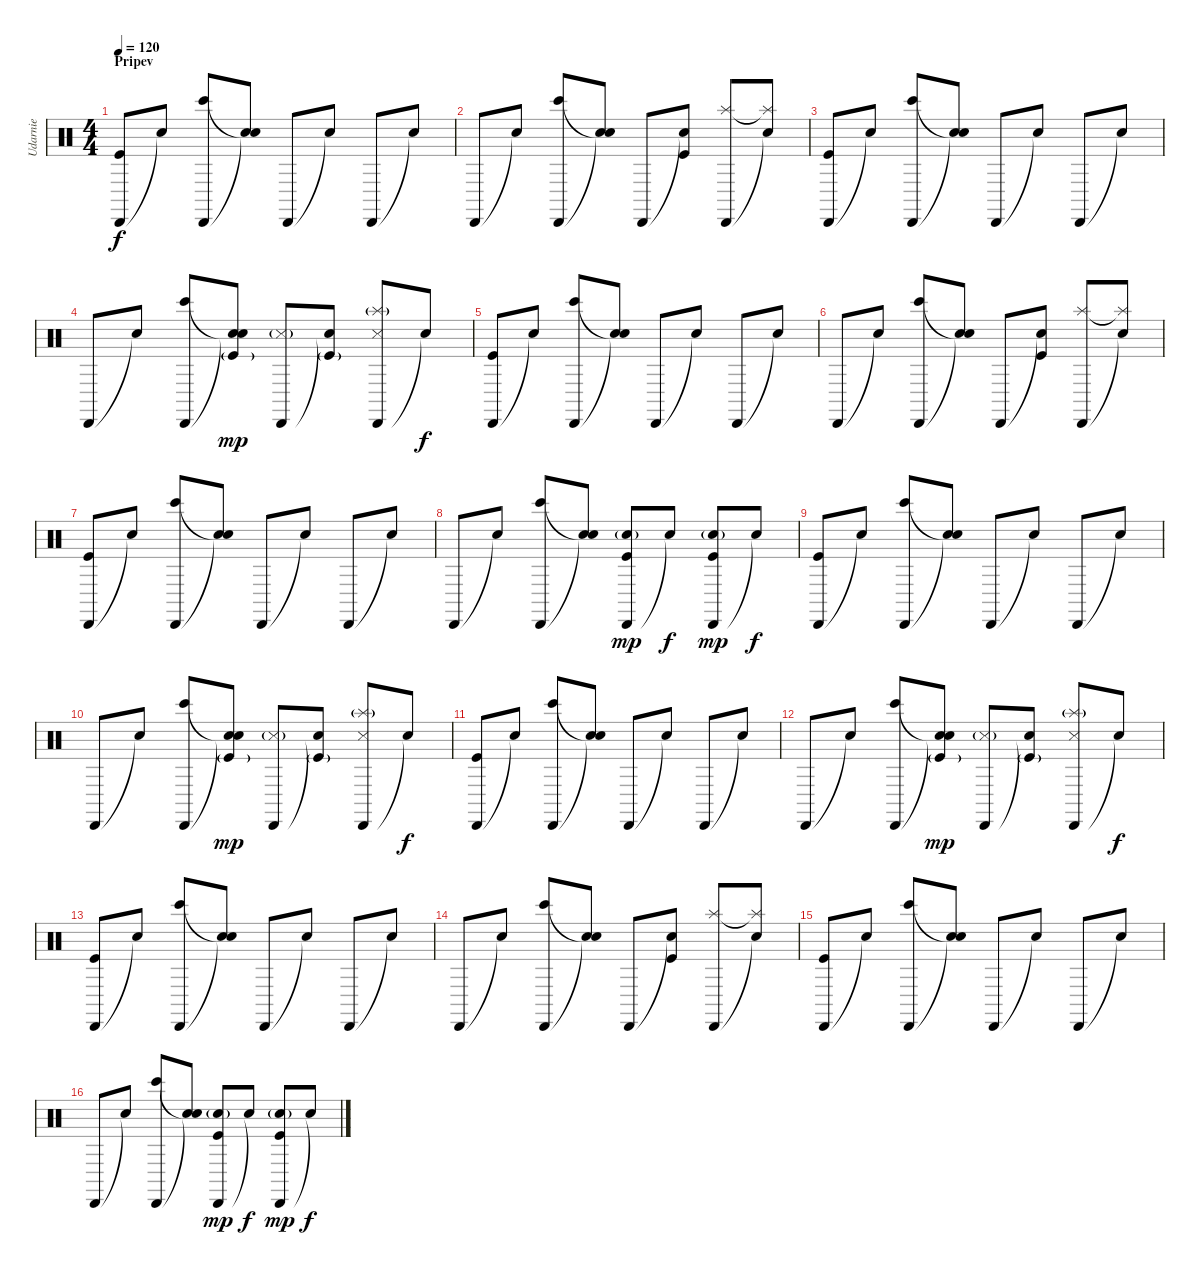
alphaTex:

\track ("Udarnie" "Udarnie") {instrument percussion}
\staff {score}
\articulation defaults
\ts (4 4)
\section ("" "Pripev")
\tempo 120
\clef neutral
\ks c
("Cabasa (hit)" "Kick (hit)").8{dy f} "Snare (hit)"{t}.8 ("Cabasa (hit)" "Bongo High (hit)").8 ("Snare (hit)"{t} "Snare (hit)"{t}).8 "Cabasa (hit)".8 "Snare (hit)"{t}.8 "Cabasa (hit)".8 "Snare (hit)"{t}.8 |
"Cabasa (hit)".8 "Snare (hit)"{t}.8 ("Cabasa (hit)" "Bongo High (hit)").8 ("Snare (hit)"{t} "Snare (hit)"{t}).8 "Cabasa (hit)".8 ("Snare (hit)"{t} "Kick (hit)").8 ("Cabasa (hit)" "Splash (hit)").8 ("Snare (hit)"{t} "Splash (hit)"{t}).8 |
("Cabasa (hit)" "Kick (hit)").8 "Snare (hit)"{t}.8 ("Cabasa (hit)" "Bongo High (hit)").8 ("Snare (hit)"{t} "Snare (hit)"{t}).8 "Cabasa (hit)".8 "Snare (hit)"{t}.8 "Cabasa (hit)".8 "Snare (hit)"{t}.8 |
"Cabasa (hit)".8 "Snare (hit)"{t}.8 ("Cabasa (hit)" "Bongo High (hit)").8 ("Snare (hit)"{t} "Snare (hit)"{t} "Kick (hit)"{g}).8{dy mp} ("Cabasa (hit)" "Snare (side stick) 3"{g}).8 ("Snare (hit)"{t} "Kick (hit)"{g}).8 ("Cabasa (hit)" "Snare (side stick) 3" "Splash (hit)"{g}).8 "Snare (hit)"{t}.8{dy f} |
("Cabasa (hit)" "Kick (hit)").8 "Snare (hit)"{t}.8 ("Cabasa (hit)" "Bongo High (hit)").8 ("Snare (hit)"{t} "Snare (hit)"{t}).8 "Cabasa (hit)".8 "Snare (hit)"{t}.8 "Cabasa (hit)".8 "Snare (hit)"{t}.8 |
"Cabasa (hit)".8 "Snare (hit)"{t}.8 ("Cabasa (hit)" "Bongo High (hit)").8 ("Snare (hit)"{t} "Snare (hit)"{t}).8 "Cabasa (hit)".8 ("Snare (hit)"{t} "Kick (hit)").8 ("Cabasa (hit)" "Splash (hit)").8 ("Snare (hit)"{t} "Splash (hit)"{t}).8 |
("Cabasa (hit)" "Kick (hit)").8 "Snare (hit)"{t}.8 ("Cabasa (hit)" "Bongo High (hit)").8 ("Snare (hit)"{t} "Snare (hit)"{t}).8 "Cabasa (hit)".8 "Snare (hit)"{t}.8 "Cabasa (hit)".8 "Snare (hit)"{t}.8 |
"Cabasa (hit)".8 "Snare (hit)"{t}.8 ("Cabasa (hit)" "Bongo High (hit)").8 ("Snare (hit)"{t} "Snare (hit)"{t}).8 ("Cabasa (hit)" "Electric Snare (hit)"{g} "Kick (hit)").8{dy mp} "Snare (hit)"{t}.8{dy f} ("Cabasa (hit)" "Electric Snare (hit)"{g} "Kick (hit)").8{dy mp} "Snare (hit)"{t}.8{dy f} |
("Cabasa (hit)" "Kick (hit)").8 "Snare (hit)"{t}.8 ("Cabasa (hit)" "Bongo High (hit)").8 ("Snare (hit)"{t} "Snare (hit)"{t}).8 "Cabasa (hit)".8 "Snare (hit)"{t}.8 "Cabasa (hit)".8 "Snare (hit)"{t}.8 |
"Cabasa (hit)".8 "Snare (hit)"{t}.8 ("Cabasa (hit)" "Bongo High (hit)").8 ("Snare (hit)"{t} "Snare (hit)"{t} "Kick (hit)"{g}).8{dy mp} ("Cabasa (hit)" "Snare (side stick) 3"{g}).8 ("Snare (hit)"{t} "Kick (hit)"{g}).8 ("Cabasa (hit)" "Snare (side stick) 3" "Splash (hit)"{g}).8 "Snare (hit)"{t}.8{dy f} |
("Cabasa (hit)" "Kick (hit)").8 "Snare (hit)"{t}.8 ("Cabasa (hit)" "Bongo High (hit)").8 ("Snare (hit)"{t} "Snare (hit)"{t}).8 "Cabasa (hit)".8 "Snare (hit)"{t}.8 "Cabasa (hit)".8 "Snare (hit)"{t}.8 |
"Cabasa (hit)".8 "Snare (hit)"{t}.8 ("Cabasa (hit)" "Bongo High (hit)").8 ("Snare (hit)"{t} "Snare (hit)"{t} "Kick (hit)"{g}).8{dy mp} ("Cabasa (hit)" "Snare (side stick) 3"{g}).8 ("Snare (hit)"{t} "Kick (hit)"{g}).8 ("Cabasa (hit)" "Snare (side stick) 3" "Splash (hit)"{g}).8 "Snare (hit)"{t}.8{dy f} |
("Cabasa (hit)" "Kick (hit)").8 "Snare (hit)"{t}.8 ("Cabasa (hit)" "Bongo High (hit)").8 ("Snare (hit)"{t} "Snare (hit)"{t}).8 "Cabasa (hit)".8 "Snare (hit)"{t}.8 "Cabasa (hit)".8 "Snare (hit)"{t}.8 |
"Cabasa (hit)".8 "Snare (hit)"{t}.8 ("Cabasa (hit)" "Bongo High (hit)").8 ("Snare (hit)"{t} "Snare (hit)"{t}).8 "Cabasa (hit)".8 ("Snare (hit)"{t} "Kick (hit)").8 ("Cabasa (hit)" "Splash (hit)").8 ("Snare (hit)"{t} "Splash (hit)"{t}).8 |
("Cabasa (hit)" "Kick (hit)").8 "Snare (hit)"{t}.8 ("Cabasa (hit)" "Bongo High (hit)").8 ("Snare (hit)"{t} "Snare (hit)"{t}).8 "Cabasa (hit)".8 "Snare (hit)"{t}.8 "Cabasa (hit)".8 "Snare (hit)"{t}.8 |
"Cabasa (hit)".8 "Snare (hit)"{t}.8 ("Cabasa (hit)" "Bongo High (hit)").8 ("Snare (hit)"{t} "Snare (hit)"{t}).8 ("Cabasa (hit)" "Electric Snare (hit)"{g} "Kick (hit)").8{dy mp} "Snare (hit)"{t}.8{dy f} ("Cabasa (hit)" "Electric Snare (hit)"{g} "Kick (hit)").8{dy mp} "Snare (hit)"{t}.8{dy f}
